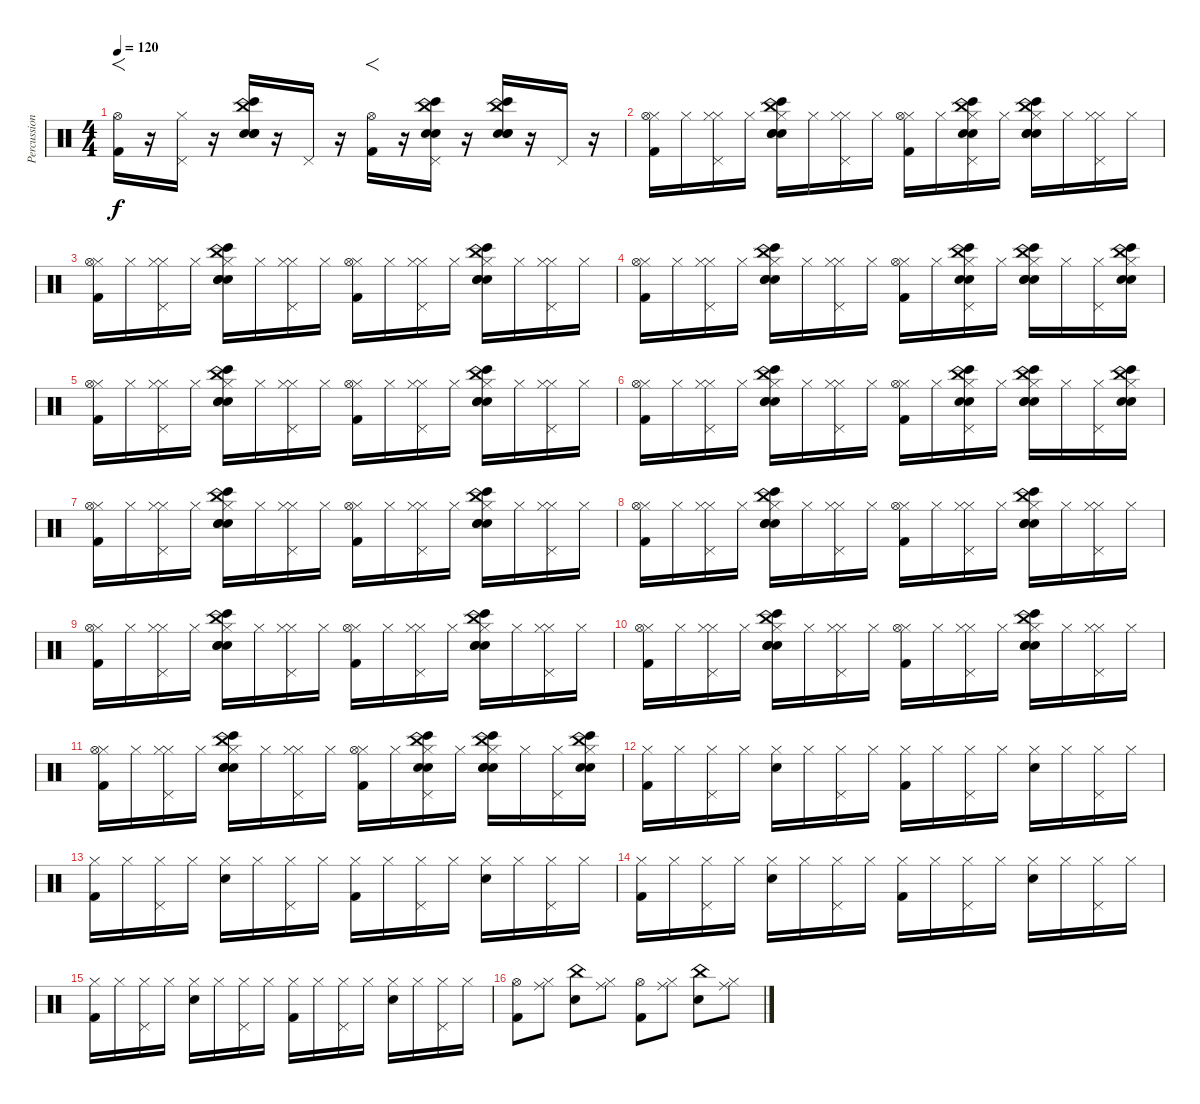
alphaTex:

\track ("Percussion" "Percussion") {instrument percussion}
\staff {score}
\articulation defaults
\ts (4 4)
\tempo 120
\clef neutral
\ks c
("Kick (hit) 2" "Hi-Hat (open)").16{f dy f} r.16 ("Pedal Hi-Hat (hit)" "Hi-Hat (closed)").16 r.16 ("Snare (hit) 2" "China (hit)" "Bongo High (hit)" "Hand Clap (hit)" "Hand Clap (hit)").16 r.16 "Pedal Hi-Hat (hit)".16 r.16 ("Kick (hit) 2" "Hi-Hat (open)").16{f} r.16 ("Pedal Hi-Hat (hit)" "China (hit)" "Bongo High (hit)" "Hand Clap (hit)" "Hand Clap (hit)").16 r.16 ("Snare (hit) 2" "China (hit)" "Bongo High (hit)" "Hand Clap (hit)" "Hand Clap (hit)").16 r.16 "Pedal Hi-Hat (hit)".16 r.16 |
("Hi-Hat (closed)" "Kick (hit) 2" "Hi-Hat (open)").16 "Hi-Hat (closed)".16 ("Hi-Hat (closed)" "Pedal Hi-Hat (hit)" "Hi-Hat (closed)").16 "Hi-Hat (closed)".16 ("Hi-Hat (closed)" "Snare (hit) 2" "China (hit)" "Bongo High (hit)" "Hand Clap (hit)" "Hand Clap (hit)").16 "Hi-Hat (closed)".16 ("Hi-Hat (closed)" "Pedal Hi-Hat (hit)" "Hi-Hat (closed)").16 "Hi-Hat (closed)".16 ("Hi-Hat (closed)" "Kick (hit) 2" "Hi-Hat (open)").16 "Hi-Hat (closed)".16 ("Hi-Hat (closed)" "Pedal Hi-Hat (hit)" "China (hit)" "Bongo High (hit)" "Hand Clap (hit)" "Hand Clap (hit)").16 "Hi-Hat (closed)".16 ("Hi-Hat (closed)" "Snare (hit) 2" "China (hit)" "Bongo High (hit)" "Hand Clap (hit)" "Hand Clap (hit)").16 "Hi-Hat (closed)".16 ("Hi-Hat (closed)" "Pedal Hi-Hat (hit)" "Hi-Hat (closed)").16 "Hi-Hat (closed)".16 |
("Hi-Hat (closed)" "Kick (hit) 2" "Hi-Hat (open)").16 "Hi-Hat (closed)".16 ("Hi-Hat (closed)" "Pedal Hi-Hat (hit)" "Hi-Hat (closed)").16 "Hi-Hat (closed)".16 ("Hi-Hat (closed)" "Snare (hit) 2" "China (hit)" "Bongo High (hit)" "Hand Clap (hit)" "Hand Clap (hit)").16 "Hi-Hat (closed)".16 ("Hi-Hat (closed)" "Pedal Hi-Hat (hit)" "Hi-Hat (closed)").16 "Hi-Hat (closed)".16 ("Hi-Hat (closed)" "Kick (hit) 2" "Hi-Hat (open)").16 "Hi-Hat (closed)".16 ("Hi-Hat (closed)" "Pedal Hi-Hat (hit)" "Hi-Hat (closed)").16 "Hi-Hat (closed)".16 ("Hi-Hat (closed)" "Snare (hit) 2" "China (hit)" "Bongo High (hit)" "Hand Clap (hit)" "Hand Clap (hit)").16 "Hi-Hat (closed)".16 ("Hi-Hat (closed)" "Pedal Hi-Hat (hit)" "Hi-Hat (closed)").16 "Hi-Hat (closed)".16 |
("Hi-Hat (closed)" "Kick (hit) 2" "Hi-Hat (open)").16 "Hi-Hat (closed)".16 ("Hi-Hat (closed)" "Pedal Hi-Hat (hit)" "Hi-Hat (closed)").16 "Hi-Hat (closed)".16 ("Hi-Hat (closed)" "Snare (hit) 2" "China (hit)" "Bongo High (hit)" "Hand Clap (hit)" "Hand Clap (hit)").16 "Hi-Hat (closed)".16 ("Hi-Hat (closed)" "Pedal Hi-Hat (hit)" "Hi-Hat (closed)").16 "Hi-Hat (closed)".16 ("Hi-Hat (closed)" "Kick (hit) 2" "Hi-Hat (open)").16 "Hi-Hat (closed)".16 ("Hi-Hat (closed)" "Pedal Hi-Hat (hit)" "China (hit)" "Bongo High (hit)" "Hand Clap (hit)" "Hand Clap (hit)").16 "Hi-Hat (closed)".16 ("Hi-Hat (closed)" "Snare (hit) 2" "China (hit)" "Bongo High (hit)" "Hand Clap (hit)" "Hand Clap (hit)").16 "Hi-Hat (closed)".16 ("Hi-Hat (closed)" "Pedal Hi-Hat (hit)").16 ("Hi-Hat (closed)" "China (hit)" "Bongo High (hit)" "Hand Clap (hit)" "Hand Clap (hit)").16 |
("Hi-Hat (closed)" "Kick (hit) 2" "Hi-Hat (open)").16 "Hi-Hat (closed)".16 ("Hi-Hat (closed)" "Pedal Hi-Hat (hit)" "Hi-Hat (closed)").16 "Hi-Hat (closed)".16 ("Hi-Hat (closed)" "Snare (hit) 2" "China (hit)" "Bongo High (hit)" "Hand Clap (hit)" "Hand Clap (hit)").16 "Hi-Hat (closed)".16 ("Hi-Hat (closed)" "Pedal Hi-Hat (hit)" "Hi-Hat (closed)").16 "Hi-Hat (closed)".16 ("Hi-Hat (closed)" "Kick (hit) 2" "Hi-Hat (open)").16 "Hi-Hat (closed)".16 ("Hi-Hat (closed)" "Pedal Hi-Hat (hit)" "Hi-Hat (closed)").16 "Hi-Hat (closed)".16 ("Hi-Hat (closed)" "Snare (hit) 2" "China (hit)" "Bongo High (hit)" "Hand Clap (hit)" "Hand Clap (hit)").16 "Hi-Hat (closed)".16 ("Hi-Hat (closed)" "Pedal Hi-Hat (hit)" "Hi-Hat (closed)").16 "Hi-Hat (closed)".16 |
("Hi-Hat (closed)" "Kick (hit) 2" "Hi-Hat (open)").16 "Hi-Hat (closed)".16 ("Hi-Hat (closed)" "Pedal Hi-Hat (hit)" "Hi-Hat (closed)").16 "Hi-Hat (closed)".16 ("Hi-Hat (closed)" "Snare (hit) 2" "China (hit)" "Bongo High (hit)" "Hand Clap (hit)" "Hand Clap (hit)").16 "Hi-Hat (closed)".16 ("Hi-Hat (closed)" "Pedal Hi-Hat (hit)" "Hi-Hat (closed)").16 "Hi-Hat (closed)".16 ("Hi-Hat (closed)" "Kick (hit) 2" "Hi-Hat (open)").16 "Hi-Hat (closed)".16 ("Hi-Hat (closed)" "Pedal Hi-Hat (hit)" "China (hit)" "Bongo High (hit)" "Hand Clap (hit)" "Hand Clap (hit)").16 "Hi-Hat (closed)".16 ("Hi-Hat (closed)" "Snare (hit) 2" "China (hit)" "Bongo High (hit)" "Hand Clap (hit)" "Hand Clap (hit)").16 "Hi-Hat (closed)".16 ("Hi-Hat (closed)" "Pedal Hi-Hat (hit)").16 ("Hi-Hat (closed)" "China (hit)" "Bongo High (hit)" "Hand Clap (hit)" "Hand Clap (hit)").16 |
("Hi-Hat (closed)" "Kick (hit) 2" "Hi-Hat (open)").16 "Hi-Hat (closed)".16 ("Hi-Hat (closed)" "Pedal Hi-Hat (hit)" "Hi-Hat (closed)").16 "Hi-Hat (closed)".16 ("Hi-Hat (closed)" "Snare (hit) 2" "China (hit)" "Bongo High (hit)" "Hand Clap (hit)" "Hand Clap (hit)").16 "Hi-Hat (closed)".16 ("Hi-Hat (closed)" "Pedal Hi-Hat (hit)" "Hi-Hat (closed)").16 "Hi-Hat (closed)".16 ("Hi-Hat (closed)" "Kick (hit) 2" "Hi-Hat (open)").16 "Hi-Hat (closed)".16 ("Hi-Hat (closed)" "Pedal Hi-Hat (hit)" "Hi-Hat (closed)").16 "Hi-Hat (closed)".16 ("Hi-Hat (closed)" "Snare (hit) 2" "China (hit)" "Bongo High (hit)" "Hand Clap (hit)" "Hand Clap (hit)").16 "Hi-Hat (closed)".16 ("Hi-Hat (closed)" "Pedal Hi-Hat (hit)" "Hi-Hat (closed)").16 "Hi-Hat (closed)".16 |
("Hi-Hat (closed)" "Kick (hit) 2" "Hi-Hat (open)").16 "Hi-Hat (closed)".16 ("Hi-Hat (closed)" "Pedal Hi-Hat (hit)" "Hi-Hat (closed)").16 "Hi-Hat (closed)".16 ("Hi-Hat (closed)" "Snare (hit) 2" "China (hit)" "Bongo High (hit)" "Hand Clap (hit)" "Hand Clap (hit)").16 "Hi-Hat (closed)".16 ("Hi-Hat (closed)" "Pedal Hi-Hat (hit)" "Hi-Hat (closed)").16 "Hi-Hat (closed)".16 ("Hi-Hat (closed)" "Kick (hit) 2" "Hi-Hat (open)").16 "Hi-Hat (closed)".16 ("Hi-Hat (closed)" "Pedal Hi-Hat (hit)" "Hi-Hat (closed)").16 "Hi-Hat (closed)".16 ("Hi-Hat (closed)" "Snare (hit) 2" "China (hit)" "Bongo High (hit)" "Hand Clap (hit)" "Hand Clap (hit)").16 "Hi-Hat (closed)".16 ("Hi-Hat (closed)" "Pedal Hi-Hat (hit)" "Hi-Hat (closed)").16 "Hi-Hat (closed)".16 |
("Hi-Hat (closed)" "Kick (hit) 2" "Hi-Hat (open)").16 "Hi-Hat (closed)".16 ("Hi-Hat (closed)" "Pedal Hi-Hat (hit)" "Hi-Hat (closed)").16 "Hi-Hat (closed)".16 ("Hi-Hat (closed)" "Snare (hit) 2" "China (hit)" "Bongo High (hit)" "Hand Clap (hit)" "Hand Clap (hit)").16 "Hi-Hat (closed)".16 ("Hi-Hat (closed)" "Pedal Hi-Hat (hit)" "Hi-Hat (closed)").16 "Hi-Hat (closed)".16 ("Hi-Hat (closed)" "Kick (hit) 2" "Hi-Hat (open)").16 "Hi-Hat (closed)".16 ("Hi-Hat (closed)" "Pedal Hi-Hat (hit)" "Hi-Hat (closed)").16 "Hi-Hat (closed)".16 ("Hi-Hat (closed)" "Snare (hit) 2" "China (hit)" "Bongo High (hit)" "Hand Clap (hit)" "Hand Clap (hit)").16 "Hi-Hat (closed)".16 ("Hi-Hat (closed)" "Pedal Hi-Hat (hit)" "Hi-Hat (closed)").16 "Hi-Hat (closed)".16 |
("Hi-Hat (closed)" "Kick (hit) 2" "Hi-Hat (open)").16 "Hi-Hat (closed)".16 ("Hi-Hat (closed)" "Pedal Hi-Hat (hit)" "Hi-Hat (closed)").16 "Hi-Hat (closed)".16 ("Hi-Hat (closed)" "Snare (hit) 2" "China (hit)" "Bongo High (hit)" "Hand Clap (hit)" "Hand Clap (hit)").16 "Hi-Hat (closed)".16 ("Hi-Hat (closed)" "Pedal Hi-Hat (hit)" "Hi-Hat (closed)").16 "Hi-Hat (closed)".16 ("Hi-Hat (closed)" "Kick (hit) 2" "Hi-Hat (open)").16 "Hi-Hat (closed)".16 ("Hi-Hat (closed)" "Pedal Hi-Hat (hit)" "Hi-Hat (closed)").16 "Hi-Hat (closed)".16 ("Hi-Hat (closed)" "Snare (hit) 2" "China (hit)" "Bongo High (hit)" "Hand Clap (hit)" "Hand Clap (hit)").16 "Hi-Hat (closed)".16 ("Hi-Hat (closed)" "Pedal Hi-Hat (hit)" "Hi-Hat (closed)").16 "Hi-Hat (closed)".16 |
("Hi-Hat (closed)" "Kick (hit) 2" "Hi-Hat (open)").16 "Hi-Hat (closed)".16 ("Hi-Hat (closed)" "Pedal Hi-Hat (hit)" "Hi-Hat (closed)").16 "Hi-Hat (closed)".16 ("Hi-Hat (closed)" "Snare (hit) 2" "China (hit)" "Bongo High (hit)" "Hand Clap (hit)" "Hand Clap (hit)").16 "Hi-Hat (closed)".16 ("Hi-Hat (closed)" "Pedal Hi-Hat (hit)" "Hi-Hat (closed)").16 "Hi-Hat (closed)".16 ("Hi-Hat (closed)" "Kick (hit) 2" "Hi-Hat (open)").16 "Hi-Hat (closed)".16 ("Hi-Hat (closed)" "Pedal Hi-Hat (hit)" "China (hit)" "Bongo High (hit)" "Hand Clap (hit)" "Hand Clap (hit)").16 "Hi-Hat (closed)".16 ("Hi-Hat (closed)" "Snare (hit) 2" "China (hit)" "Bongo High (hit)" "Hand Clap (hit)" "Hand Clap (hit)").16 "Hi-Hat (closed)".16 ("Hi-Hat (closed)" "Pedal Hi-Hat (hit)").16 ("Hi-Hat (closed)" "China (hit)" "Bongo High (hit)" "Hand Clap (hit)" "Hand Clap (hit)").16 |
("Hi-Hat (closed)" "Kick (hit) 2").16 "Hi-Hat (closed)".16 ("Hi-Hat (closed)" "Pedal Hi-Hat (hit)").16 "Hi-Hat (closed)".16 ("Hi-Hat (closed)" "Snare (hit) 2").16 "Hi-Hat (closed)".16 ("Hi-Hat (closed)" "Pedal Hi-Hat (hit)").16 "Hi-Hat (closed)".16 ("Hi-Hat (closed)" "Kick (hit) 2").16 "Hi-Hat (closed)".16 ("Hi-Hat (closed)" "Pedal Hi-Hat (hit)").16 "Hi-Hat (closed)".16 ("Hi-Hat (closed)" "Snare (hit) 2").16 "Hi-Hat (closed)".16 ("Hi-Hat (closed)" "Pedal Hi-Hat (hit)").16 "Hi-Hat (closed)".16 |
("Hi-Hat (closed)" "Kick (hit) 2").16 "Hi-Hat (closed)".16 ("Hi-Hat (closed)" "Pedal Hi-Hat (hit)").16 "Hi-Hat (closed)".16 ("Hi-Hat (closed)" "Snare (hit) 2").16 "Hi-Hat (closed)".16 ("Hi-Hat (closed)" "Pedal Hi-Hat (hit)").16 "Hi-Hat (closed)".16 ("Hi-Hat (closed)" "Kick (hit) 2").16 "Hi-Hat (closed)".16 ("Hi-Hat (closed)" "Pedal Hi-Hat (hit)").16 "Hi-Hat (closed)".16 ("Hi-Hat (closed)" "Snare (hit) 2").16 "Hi-Hat (closed)".16 ("Hi-Hat (closed)" "Pedal Hi-Hat (hit)").16 "Hi-Hat (closed)".16 |
("Hi-Hat (closed)" "Kick (hit) 2").16 "Hi-Hat (closed)".16 ("Hi-Hat (closed)" "Pedal Hi-Hat (hit)").16 "Hi-Hat (closed)".16 ("Hi-Hat (closed)" "Snare (hit) 2").16 "Hi-Hat (closed)".16 ("Hi-Hat (closed)" "Pedal Hi-Hat (hit)").16 "Hi-Hat (closed)".16 ("Hi-Hat (closed)" "Kick (hit) 2").16 "Hi-Hat (closed)".16 ("Hi-Hat (closed)" "Pedal Hi-Hat (hit)").16 "Hi-Hat (closed)".16 ("Hi-Hat (closed)" "Snare (hit) 2").16 "Hi-Hat (closed)".16 ("Hi-Hat (closed)" "Pedal Hi-Hat (hit)").16 "Hi-Hat (closed)".16 |
("Hi-Hat (closed)" "Kick (hit) 2").16 "Hi-Hat (closed)".16 ("Hi-Hat (closed)" "Pedal Hi-Hat (hit)").16 "Hi-Hat (closed)".16 ("Hi-Hat (closed)" "Snare (hit) 2").16 "Hi-Hat (closed)".16 ("Hi-Hat (closed)" "Pedal Hi-Hat (hit)").16 "Hi-Hat (closed)".16 ("Hi-Hat (closed)" "Kick (hit) 2").16 "Hi-Hat (closed)".16 ("Hi-Hat (closed)" "Pedal Hi-Hat (hit)").16 "Hi-Hat (closed)".16 ("Hi-Hat (closed)" "Snare (hit) 2").16 "Hi-Hat (closed)".16 ("Hi-Hat (closed)" "Pedal Hi-Hat (hit)").16 "Hi-Hat (closed)".16 |
("Hi-Hat (open)" "Kick (hit) 2").8 ("Hi-Hat (closed)" "Ride (middle)").8 ("China (hit)" "Snare (hit) 2").8 ("Hi-Hat (closed)" "Ride (middle)").8 ("Hi-Hat (open)" "Kick (hit) 2").8 ("Hi-Hat (closed)" "Ride (middle)").8 ("China (hit)" "Snare (hit) 2").8 ("Hi-Hat (closed)" "Ride (middle)").8
